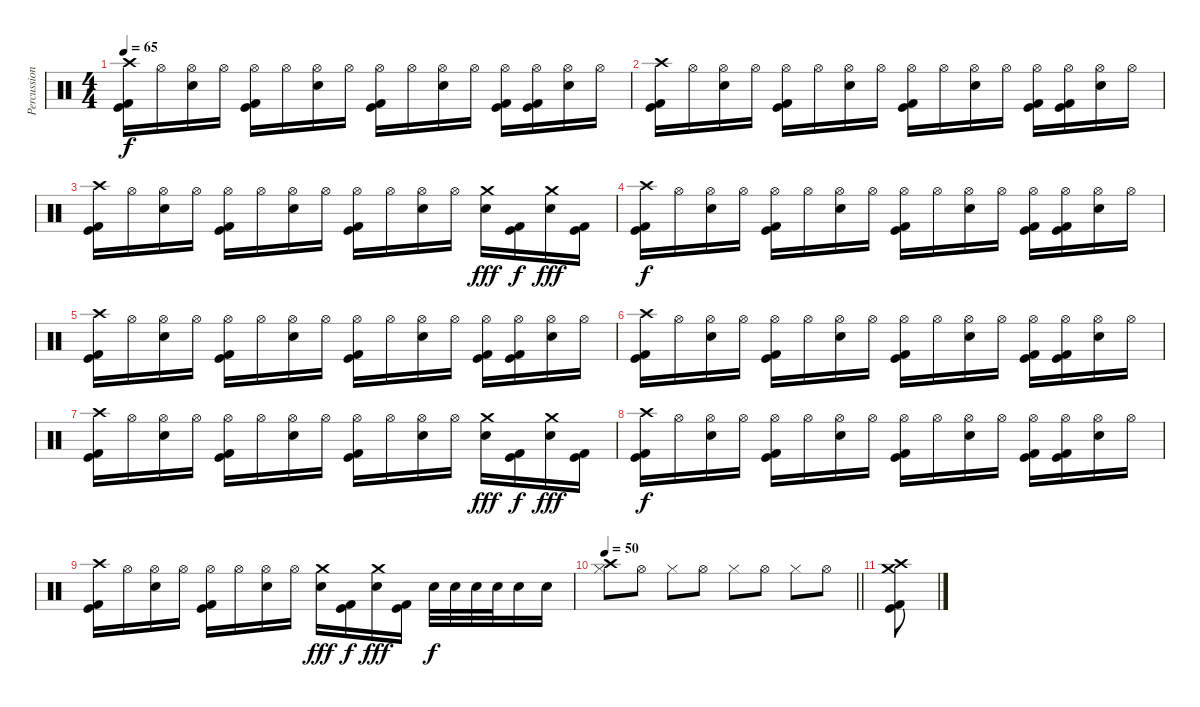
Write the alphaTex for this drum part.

\track ("Percussioni" "Percussion") {instrument percussion}
\staff {score}
\articulation defaults
\ts (4 4)
\tempo 65
\clef neutral
\ks c
("Crash high (hit)" "Kick (hit) 2" "Kick (hit)").16{dy f} "Hi-Hat (open)".16 ("Hi-Hat (open)" "Snare (hit) 2").16 "Hi-Hat (open)".16 ("Hi-Hat (open)" "Kick (hit) 2" "Kick (hit)").16 "Hi-Hat (open)".16 ("Hi-Hat (open)" "Snare (hit) 2").16 "Hi-Hat (open)".16 ("Hi-Hat (open)" "Kick (hit) 2" "Kick (hit)").16 "Hi-Hat (open)".16 ("Hi-Hat (open)" "Snare (hit) 2").16 "Hi-Hat (open)".16 ("Hi-Hat (open)" "Kick (hit) 2" "Kick (hit)").16 ("Hi-Hat (open)" "Kick (hit) 2" "Kick (hit)").16 ("Hi-Hat (open)" "Snare (hit) 2").16 "Hi-Hat (open)".16 |
("Crash high (hit)" "Kick (hit) 2" "Kick (hit)").16 "Hi-Hat (open)".16 ("Hi-Hat (open)" "Snare (hit) 2").16 "Hi-Hat (open)".16 ("Hi-Hat (open)" "Kick (hit) 2" "Kick (hit)").16 "Hi-Hat (open)".16 ("Hi-Hat (open)" "Snare (hit) 2").16 "Hi-Hat (open)".16 ("Hi-Hat (open)" "Kick (hit) 2" "Kick (hit)").16 "Hi-Hat (open)".16 ("Hi-Hat (open)" "Snare (hit) 2").16 "Hi-Hat (open)".16 ("Hi-Hat (open)" "Kick (hit) 2" "Kick (hit)").16 ("Hi-Hat (open)" "Kick (hit) 2" "Kick (hit)").16 ("Hi-Hat (open)" "Snare (hit) 2").16 "Hi-Hat (open)".16 |
("Crash high (hit)" "Kick (hit) 2" "Kick (hit)").16 "Hi-Hat (open)".16 ("Hi-Hat (open)" "Snare (hit) 2").16 "Hi-Hat (open)".16 ("Hi-Hat (open)" "Kick (hit) 2" "Kick (hit)").16 "Hi-Hat (open)".16 ("Hi-Hat (open)" "Snare (hit) 2").16 "Hi-Hat (open)".16 ("Hi-Hat (open)" "Kick (hit) 2" "Kick (hit)").16 "Hi-Hat (open)".16 ("Hi-Hat (open)" "Snare (hit) 2").16 "Hi-Hat (open)".16 ("Crash medium (hit)" "Snare (hit) 2").16{dy fff} ("Kick (hit) 2" "Kick (hit)").16{dy f} ("Crash medium (hit)" "Snare (hit) 2").16{dy fff} ("Kick (hit) 2" "Kick (hit)").16 |
("Crash high (hit)" "Kick (hit) 2" "Kick (hit)").16{dy f} "Hi-Hat (open)".16 ("Hi-Hat (open)" "Snare (hit) 2").16 "Hi-Hat (open)".16 ("Hi-Hat (open)" "Kick (hit) 2" "Kick (hit)").16 "Hi-Hat (open)".16 ("Hi-Hat (open)" "Snare (hit) 2").16 "Hi-Hat (open)".16 ("Hi-Hat (open)" "Kick (hit) 2" "Kick (hit)").16 "Hi-Hat (open)".16 ("Hi-Hat (open)" "Snare (hit) 2").16 "Hi-Hat (open)".16 ("Hi-Hat (open)" "Kick (hit) 2" "Kick (hit)").16 ("Hi-Hat (open)" "Kick (hit) 2" "Kick (hit)").16 ("Hi-Hat (open)" "Snare (hit) 2").16 "Hi-Hat (open)".16 |
("Crash high (hit)" "Kick (hit) 2" "Kick (hit)").16 "Hi-Hat (open)".16 ("Hi-Hat (open)" "Snare (hit) 2").16 "Hi-Hat (open)".16 ("Hi-Hat (open)" "Kick (hit) 2" "Kick (hit)").16 "Hi-Hat (open)".16 ("Hi-Hat (open)" "Snare (hit) 2").16 "Hi-Hat (open)".16 ("Hi-Hat (open)" "Kick (hit) 2" "Kick (hit)").16 "Hi-Hat (open)".16 ("Hi-Hat (open)" "Snare (hit) 2").16 "Hi-Hat (open)".16 ("Hi-Hat (open)" "Kick (hit) 2" "Kick (hit)").16 ("Hi-Hat (open)" "Kick (hit) 2" "Kick (hit)").16 ("Hi-Hat (open)" "Snare (hit) 2").16 "Hi-Hat (open)".16 |
("Crash high (hit)" "Kick (hit) 2" "Kick (hit)").16 "Hi-Hat (open)".16 ("Hi-Hat (open)" "Snare (hit) 2").16 "Hi-Hat (open)".16 ("Hi-Hat (open)" "Kick (hit) 2" "Kick (hit)").16 "Hi-Hat (open)".16 ("Hi-Hat (open)" "Snare (hit) 2").16 "Hi-Hat (open)".16 ("Hi-Hat (open)" "Kick (hit) 2" "Kick (hit)").16 "Hi-Hat (open)".16 ("Hi-Hat (open)" "Snare (hit) 2").16 "Hi-Hat (open)".16 ("Hi-Hat (open)" "Kick (hit) 2" "Kick (hit)").16 ("Hi-Hat (open)" "Kick (hit) 2" "Kick (hit)").16 ("Hi-Hat (open)" "Snare (hit) 2").16 "Hi-Hat (open)".16 |
("Crash high (hit)" "Kick (hit) 2" "Kick (hit)").16 "Hi-Hat (open)".16 ("Hi-Hat (open)" "Snare (hit) 2").16 "Hi-Hat (open)".16 ("Hi-Hat (open)" "Kick (hit) 2" "Kick (hit)").16 "Hi-Hat (open)".16 ("Hi-Hat (open)" "Snare (hit) 2").16 "Hi-Hat (open)".16 ("Hi-Hat (open)" "Kick (hit) 2" "Kick (hit)").16 "Hi-Hat (open)".16 ("Hi-Hat (open)" "Snare (hit) 2").16 "Hi-Hat (open)".16 ("Crash medium (hit)" "Snare (hit) 2").16{dy fff} ("Kick (hit) 2" "Kick (hit)").16{dy f} ("Crash medium (hit)" "Snare (hit) 2").16{dy fff} ("Kick (hit) 2" "Kick (hit)").16 |
("Crash high (hit)" "Kick (hit) 2" "Kick (hit)").16{dy f} "Hi-Hat (open)".16 ("Hi-Hat (open)" "Snare (hit) 2").16 "Hi-Hat (open)".16 ("Hi-Hat (open)" "Kick (hit) 2" "Kick (hit)").16 "Hi-Hat (open)".16 ("Hi-Hat (open)" "Snare (hit) 2").16 "Hi-Hat (open)".16 ("Hi-Hat (open)" "Kick (hit) 2" "Kick (hit)").16 "Hi-Hat (open)".16 ("Hi-Hat (open)" "Snare (hit) 2").16 "Hi-Hat (open)".16 ("Hi-Hat (open)" "Kick (hit) 2" "Kick (hit)").16 ("Hi-Hat (open)" "Kick (hit) 2" "Kick (hit)").16 ("Hi-Hat (open)" "Snare (hit) 2").16 "Hi-Hat (open)".16 |
("Crash high (hit)" "Kick (hit) 2" "Kick (hit)").16 "Hi-Hat (open)".16 ("Hi-Hat (open)" "Snare (hit) 2").16 "Hi-Hat (open)".16 ("Hi-Hat (open)" "Kick (hit) 2" "Kick (hit)").16 "Hi-Hat (open)".16 ("Hi-Hat (open)" "Snare (hit) 2").16 "Hi-Hat (open)".16 ("Crash medium (hit)" "Snare (hit) 2").16{dy fff} ("Kick (hit) 2" "Kick (hit)").16{dy f} ("Crash medium (hit)" "Snare (hit) 2").16{dy fff} ("Kick (hit) 2" "Kick (hit)").16 "Snare (hit) 2".32{dy f} "Snare (hit) 2".32 "Snare (hit) 2".32 "Snare (hit) 2".32 "Snare (hit) 2".16 "Snare (hit) 2".16 |
\tempo 50
\barLineRight lightlight
("Crash high (hit)" "Hi-Hat (closed)").8 "Hi-Hat (open)".8 "Hi-Hat (closed)".8 "Hi-Hat (open)".8 "Hi-Hat (closed)".8 "Hi-Hat (open)".8 "Hi-Hat (closed)".8 "Hi-Hat (open)".8 |
("Crash high (hit)" "Crash medium (hit)" "Kick (hit) 2" "Kick (hit)").8
